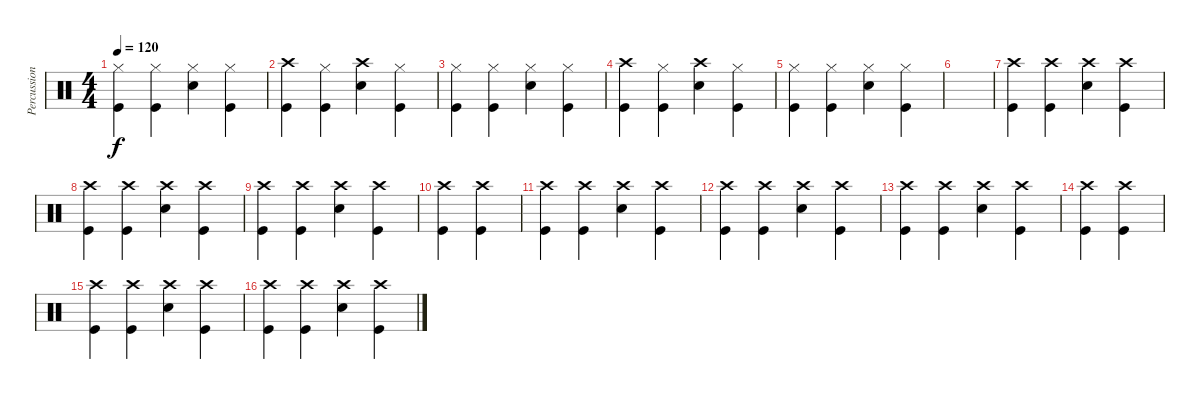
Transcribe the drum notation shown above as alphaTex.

\track ("Percussion" "Percussion") {instrument percussion}
\staff {score}
\articulation defaults
\ts (4 4)
\tempo 120
\clef neutral
\ks c
("Hi-Hat (closed)" "Kick (hit)").4{dy f} ("Hi-Hat (closed)" "Kick (hit)").4 ("Hi-Hat (closed)" "Snare (hit) 2").4 ("Hi-Hat (closed)" "Kick (hit)").4 |
("Crash high (hit)" "Kick (hit)").4 ("Hi-Hat (closed)" "Kick (hit)").4 ("Crash high (hit)" "Snare (hit) 2").4 ("Hi-Hat (closed)" "Kick (hit)").4 |
("Hi-Hat (closed)" "Kick (hit)").4 ("Hi-Hat (closed)" "Kick (hit)").4 ("Hi-Hat (closed)" "Snare (hit) 2").4 ("Hi-Hat (closed)" "Kick (hit)").4 |
("Crash high (hit)" "Kick (hit)").4 ("Hi-Hat (closed)" "Kick (hit)").4 ("Crash high (hit)" "Snare (hit) 2").4 ("Hi-Hat (closed)" "Kick (hit)").4 |
("Hi-Hat (closed)" "Kick (hit)").4 ("Hi-Hat (closed)" "Kick (hit)").4 ("Hi-Hat (closed)" "Snare (hit) 2").4 ("Hi-Hat (closed)" "Kick (hit)").4 |
|
("Crash high (hit)" "Kick (hit)").4 ("Crash high (hit)" "Kick (hit)").4 ("Crash high (hit)" "Snare (hit) 2").4 ("Crash high (hit)" "Kick (hit)").4 |
("Crash high (hit)" "Kick (hit)").4 ("Crash high (hit)" "Kick (hit)").4 ("Crash high (hit)" "Snare (hit) 2").4 ("Crash high (hit)" "Kick (hit)").4 |
("Crash high (hit)" "Kick (hit)").4 ("Crash high (hit)" "Kick (hit)").4 ("Crash high (hit)" "Snare (hit) 2").4 ("Crash high (hit)" "Kick (hit)").4 |
("Crash high (hit)" "Kick (hit)").4 ("Crash high (hit)" "Kick (hit)").4 |
("Crash high (hit)" "Kick (hit)").4 ("Crash high (hit)" "Kick (hit)").4 ("Crash high (hit)" "Snare (hit) 2").4 ("Crash high (hit)" "Kick (hit)").4 |
("Crash high (hit)" "Kick (hit)").4 ("Crash high (hit)" "Kick (hit)").4 ("Crash high (hit)" "Snare (hit) 2").4 ("Crash high (hit)" "Kick (hit)").4 |
("Crash high (hit)" "Kick (hit)").4 ("Crash high (hit)" "Kick (hit)").4 ("Crash high (hit)" "Snare (hit) 2").4 ("Crash high (hit)" "Kick (hit)").4 |
("Crash high (hit)" "Kick (hit)").4 ("Crash high (hit)" "Kick (hit)").4 |
("Crash high (hit)" "Kick (hit)").4 ("Crash high (hit)" "Kick (hit)").4 ("Crash high (hit)" "Snare (hit) 2").4 ("Crash high (hit)" "Kick (hit)").4 |
("Crash high (hit)" "Kick (hit)").4 ("Crash high (hit)" "Kick (hit)").4 ("Crash high (hit)" "Snare (hit) 2").4 ("Crash high (hit)" "Kick (hit)").4
